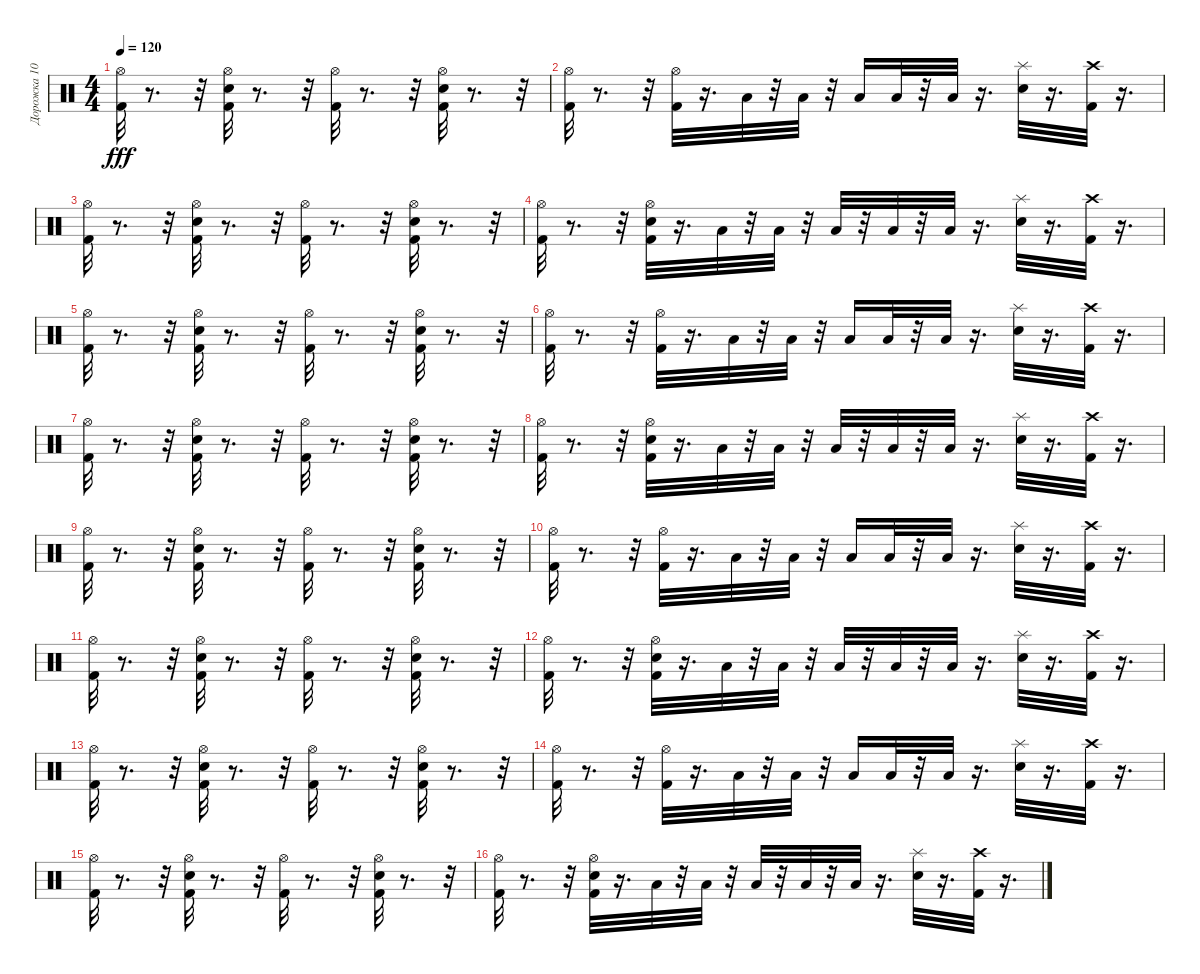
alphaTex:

\track ("Дорожка 10" "Дорожка 10") {instrument percussion}
\staff {score}
\articulation defaults
\ts (4 4)
\tempo 120
\clef neutral
\ks c
("Hi-Hat (open)" "Kick (hit) 2").32{dy fff} r.8{d} r.32 ("Hi-Hat (open)" "Electric Snare (hit)" "Kick (hit) 2").32 r.8{d} r.32 ("Hi-Hat (open)" "Kick (hit) 2").32 r.8{d} r.32 ("Hi-Hat (open)" "Electric Snare (hit)" "Kick (hit) 2").32 r.8{d} r.32 |
("Hi-Hat (open)" "Kick (hit) 2").32 r.8{d} r.32 ("Hi-Hat (open)" "Kick (hit) 2").32 r.16{d} "Low Floor Tom (hit)".32 r.32 "Low Floor Tom (hit)".32 r.32 "Low Floor Tom (hit)".16 "Low Floor Tom (hit)".32 r.32 "Low Floor Tom (hit)".32 r.16{d} ("Splash (hit)" "Electric Snare (hit)").32 r.16{d} ("Kick (hit) 2" "Crash high (hit)").32 r.16{d} |
("Hi-Hat (open)" "Kick (hit) 2").32 r.8{d} r.32 ("Hi-Hat (open)" "Electric Snare (hit)" "Kick (hit) 2").32 r.8{d} r.32 ("Hi-Hat (open)" "Kick (hit) 2").32 r.8{d} r.32 ("Hi-Hat (open)" "Electric Snare (hit)" "Kick (hit) 2").32 r.8{d} r.32 |
("Kick (hit) 2" "Hi-Hat (open)").32 r.8{d} r.32 ("Hi-Hat (open)" "Electric Snare (hit)" "Kick (hit) 2").32 r.16{d} "Low Floor Tom (hit)".32 r.32 "Low Floor Tom (hit)".32 r.32 "Low Floor Tom (hit)".32 r.32 "Low Floor Tom (hit)".32 r.32 "Low Floor Tom (hit)".32 r.16{d} ("Electric Snare (hit)" "Splash (hit)").32 r.16{d} ("Kick (hit) 2" "Crash high (hit)").32 r.16{d} |
("Hi-Hat (open)" "Kick (hit) 2").32 r.8{d} r.32 ("Hi-Hat (open)" "Electric Snare (hit)" "Kick (hit) 2").32 r.8{d} r.32 ("Hi-Hat (open)" "Kick (hit) 2").32 r.8{d} r.32 ("Hi-Hat (open)" "Electric Snare (hit)" "Kick (hit) 2").32 r.8{d} r.32 |
("Hi-Hat (open)" "Kick (hit) 2").32 r.8{d} r.32 ("Hi-Hat (open)" "Kick (hit) 2").32 r.16{d} "Low Floor Tom (hit)".32 r.32 "Low Floor Tom (hit)".32 r.32 "Low Floor Tom (hit)".16 "Low Floor Tom (hit)".32 r.32 "Low Floor Tom (hit)".32 r.16{d} ("Splash (hit)" "Electric Snare (hit)").32 r.16{d} ("Kick (hit) 2" "Crash high (hit)").32 r.16{d} |
("Hi-Hat (open)" "Kick (hit) 2").32 r.8{d} r.32 ("Hi-Hat (open)" "Electric Snare (hit)" "Kick (hit) 2").32 r.8{d} r.32 ("Hi-Hat (open)" "Kick (hit) 2").32 r.8{d} r.32 ("Hi-Hat (open)" "Electric Snare (hit)" "Kick (hit) 2").32 r.8{d} r.32 |
("Kick (hit) 2" "Hi-Hat (open)").32 r.8{d} r.32 ("Hi-Hat (open)" "Electric Snare (hit)" "Kick (hit) 2").32 r.16{d} "Low Floor Tom (hit)".32 r.32 "Low Floor Tom (hit)".32 r.32 "Low Floor Tom (hit)".32 r.32 "Low Floor Tom (hit)".32 r.32 "Low Floor Tom (hit)".32 r.16{d} ("Electric Snare (hit)" "Splash (hit)").32 r.16{d} ("Kick (hit) 2" "Crash high (hit)").32 r.16{d} |
("Hi-Hat (open)" "Kick (hit) 2").32 r.8{d} r.32 ("Hi-Hat (open)" "Electric Snare (hit)" "Kick (hit) 2").32 r.8{d} r.32 ("Hi-Hat (open)" "Kick (hit) 2").32 r.8{d} r.32 ("Hi-Hat (open)" "Electric Snare (hit)" "Kick (hit) 2").32 r.8{d} r.32 |
("Hi-Hat (open)" "Kick (hit) 2").32 r.8{d} r.32 ("Hi-Hat (open)" "Kick (hit) 2").32 r.16{d} "Low Floor Tom (hit)".32 r.32 "Low Floor Tom (hit)".32 r.32 "Low Floor Tom (hit)".16 "Low Floor Tom (hit)".32 r.32 "Low Floor Tom (hit)".32 r.16{d} ("Splash (hit)" "Electric Snare (hit)").32 r.16{d} ("Kick (hit) 2" "Crash high (hit)").32 r.16{d} |
("Hi-Hat (open)" "Kick (hit) 2").32 r.8{d} r.32 ("Hi-Hat (open)" "Electric Snare (hit)" "Kick (hit) 2").32 r.8{d} r.32 ("Hi-Hat (open)" "Kick (hit) 2").32 r.8{d} r.32 ("Hi-Hat (open)" "Electric Snare (hit)" "Kick (hit) 2").32 r.8{d} r.32 |
("Kick (hit) 2" "Hi-Hat (open)").32 r.8{d} r.32 ("Hi-Hat (open)" "Electric Snare (hit)" "Kick (hit) 2").32 r.16{d} "Low Floor Tom (hit)".32 r.32 "Low Floor Tom (hit)".32 r.32 "Low Floor Tom (hit)".32 r.32 "Low Floor Tom (hit)".32 r.32 "Low Floor Tom (hit)".32 r.16{d} ("Electric Snare (hit)" "Splash (hit)").32 r.16{d} ("Kick (hit) 2" "Crash high (hit)").32 r.16{d} |
("Hi-Hat (open)" "Kick (hit) 2").32 r.8{d} r.32 ("Hi-Hat (open)" "Electric Snare (hit)" "Kick (hit) 2").32 r.8{d} r.32 ("Hi-Hat (open)" "Kick (hit) 2").32 r.8{d} r.32 ("Hi-Hat (open)" "Electric Snare (hit)" "Kick (hit) 2").32 r.8{d} r.32 |
("Hi-Hat (open)" "Kick (hit) 2").32 r.8{d} r.32 ("Hi-Hat (open)" "Kick (hit) 2").32 r.16{d} "Low Floor Tom (hit)".32 r.32 "Low Floor Tom (hit)".32 r.32 "Low Floor Tom (hit)".16 "Low Floor Tom (hit)".32 r.32 "Low Floor Tom (hit)".32 r.16{d} ("Splash (hit)" "Electric Snare (hit)").32 r.16{d} ("Kick (hit) 2" "Crash high (hit)").32 r.16{d} |
("Hi-Hat (open)" "Kick (hit) 2").32 r.8{d} r.32 ("Hi-Hat (open)" "Electric Snare (hit)" "Kick (hit) 2").32 r.8{d} r.32 ("Hi-Hat (open)" "Kick (hit) 2").32 r.8{d} r.32 ("Hi-Hat (open)" "Electric Snare (hit)" "Kick (hit) 2").32 r.8{d} r.32 |
("Kick (hit) 2" "Hi-Hat (open)").32 r.8{d} r.32 ("Hi-Hat (open)" "Electric Snare (hit)" "Kick (hit) 2").32 r.16{d} "Low Floor Tom (hit)".32 r.32 "Low Floor Tom (hit)".32 r.32 "Low Floor Tom (hit)".32 r.32 "Low Floor Tom (hit)".32 r.32 "Low Floor Tom (hit)".32 r.16{d} ("Electric Snare (hit)" "Splash (hit)").32 r.16{d} ("Kick (hit) 2" "Crash high (hit)").32 r.16{d}
